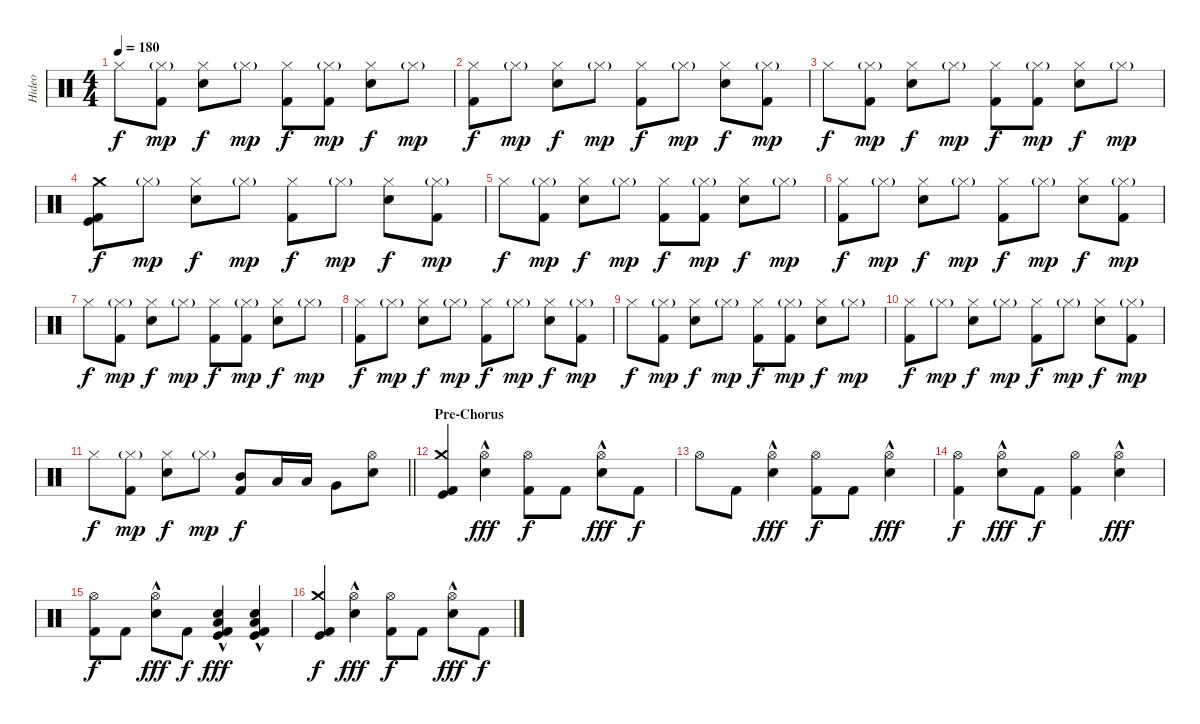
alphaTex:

\track ("Hideo" "Hideo") {instrument percussion}
\staff {score}
\articulation defaults
\ts (4 4)
\tempo 180
\clef neutral
\ks c "Hi-Hat (closed)".8{dy f}
("Hi-Hat (closed)"{g} "Kick (hit) 2").8{dy mp} ("Hi-Hat (closed)" "Electric Snare (hit)").8{dy f} "Hi-Hat (closed)"{g}.8{dy mp} ("Hi-Hat (closed)" "Kick (hit) 2").8{dy f} ("Hi-Hat (closed)"{g} "Kick (hit) 2").8{dy mp} ("Hi-Hat (closed)" "Electric Snare (hit)").8{dy f} "Hi-Hat (closed)"{g}.8{dy mp} |
("Hi-Hat (closed)" "Kick (hit) 2").8{dy f} "Hi-Hat (closed)"{g}.8{dy mp} ("Hi-Hat (closed)" "Electric Snare (hit)").8{dy f} "Hi-Hat (closed)"{g}.8{dy mp} ("Hi-Hat (closed)" "Kick (hit) 2").8{dy f} "Hi-Hat (closed)"{g}.8{dy mp} ("Hi-Hat (closed)" "Electric Snare (hit)").8{dy f} ("Hi-Hat (closed)"{g} "Kick (hit) 2").8{dy mp} |
"Hi-Hat (closed)".8{dy f} ("Hi-Hat (closed)"{g} "Kick (hit) 2").8{dy mp} ("Hi-Hat (closed)" "Electric Snare (hit)").8{dy f} "Hi-Hat (closed)"{g}.8{dy mp} ("Hi-Hat (closed)" "Kick (hit) 2").8{dy f} ("Hi-Hat (closed)"{g} "Kick (hit) 2").8{dy mp} ("Hi-Hat (closed)" "Electric Snare (hit)").8{dy f} "Hi-Hat (closed)"{g}.8{dy mp} |
("Crash medium (hit)" "Kick (hit) 2" "Kick (hit)").8{dy f} "Hi-Hat (closed)"{g}.8{dy mp} ("Hi-Hat (closed)" "Electric Snare (hit)").8{dy f} "Hi-Hat (closed)"{g}.8{dy mp} ("Hi-Hat (closed)" "Kick (hit) 2").8{dy f} "Hi-Hat (closed)"{g}.8{dy mp} ("Hi-Hat (closed)" "Electric Snare (hit)").8{dy f} ("Hi-Hat (closed)"{g} "Kick (hit) 2").8{dy mp} |
"Hi-Hat (closed)".8{dy f} ("Hi-Hat (closed)"{g} "Kick (hit) 2").8{dy mp} ("Hi-Hat (closed)" "Electric Snare (hit)").8{dy f} "Hi-Hat (closed)"{g}.8{dy mp} ("Hi-Hat (closed)" "Kick (hit) 2").8{dy f} ("Hi-Hat (closed)"{g} "Kick (hit) 2").8{dy mp} ("Hi-Hat (closed)" "Electric Snare (hit)").8{dy f} "Hi-Hat (closed)"{g}.8{dy mp} |
("Hi-Hat (closed)" "Kick (hit) 2").8{dy f} "Hi-Hat (closed)"{g}.8{dy mp} ("Hi-Hat (closed)" "Electric Snare (hit)").8{dy f} "Hi-Hat (closed)"{g}.8{dy mp} ("Hi-Hat (closed)" "Kick (hit) 2").8{dy f} "Hi-Hat (closed)"{g}.8{dy mp} ("Hi-Hat (closed)" "Electric Snare (hit)").8{dy f} ("Hi-Hat (closed)"{g} "Kick (hit) 2").8{dy mp} |
"Hi-Hat (closed)".8{dy f} ("Hi-Hat (closed)"{g} "Kick (hit) 2").8{dy mp} ("Hi-Hat (closed)" "Electric Snare (hit)").8{dy f} "Hi-Hat (closed)"{g}.8{dy mp} ("Hi-Hat (closed)" "Kick (hit) 2").8{dy f} ("Hi-Hat (closed)"{g} "Kick (hit) 2").8{dy mp} ("Hi-Hat (closed)" "Electric Snare (hit)").8{dy f} "Hi-Hat (closed)"{g}.8{dy mp} |
("Hi-Hat (closed)" "Kick (hit) 2").8{dy f} "Hi-Hat (closed)"{g}.8{dy mp} ("Hi-Hat (closed)" "Electric Snare (hit)").8{dy f} "Hi-Hat (closed)"{g}.8{dy mp} ("Hi-Hat (closed)" "Kick (hit) 2").8{dy f} "Hi-Hat (closed)"{g}.8{dy mp} ("Hi-Hat (closed)" "Electric Snare (hit)").8{dy f} ("Hi-Hat (closed)"{g} "Kick (hit) 2").8{dy mp} |
"Hi-Hat (closed)".8{dy f} ("Hi-Hat (closed)"{g} "Kick (hit) 2").8{dy mp} ("Hi-Hat (closed)" "Electric Snare (hit)").8{dy f} "Hi-Hat (closed)"{g}.8{dy mp} ("Hi-Hat (closed)" "Kick (hit) 2").8{dy f} ("Hi-Hat (closed)"{g} "Kick (hit) 2").8{dy mp} ("Hi-Hat (closed)" "Electric Snare (hit)").8{dy f} "Hi-Hat (closed)"{g}.8{dy mp} |
("Hi-Hat (closed)" "Kick (hit) 2").8{dy f} "Hi-Hat (closed)"{g}.8{dy mp} ("Hi-Hat (closed)" "Electric Snare (hit)").8{dy f} "Hi-Hat (closed)"{g}.8{dy mp} ("Hi-Hat (closed)" "Kick (hit) 2").8{dy f} "Hi-Hat (closed)"{g}.8{dy mp} ("Hi-Hat (closed)" "Electric Snare (hit)").8{dy f} ("Hi-Hat (closed)"{g} "Kick (hit) 2").8{dy mp} |
\barLineRight lightlight "Hi-Hat (closed)".8{dy f}
("Hi-Hat (closed)"{g} "Kick (hit) 2").8{dy mp} ("Hi-Hat (closed)" "Electric Snare (hit)").8{dy f} "Hi-Hat (closed)"{g}.8{dy mp} ("Mid Tom (hit)" "Kick (hit) 2").8{dy f} "Low Tom (hit)".16 "Low Tom (hit)".16 "Very Low Tom (hit)".8 ("Hi-Hat (open)" "Electric Snare (hit)").8 |
\section ("" "Pre-Chorus")
("Crash medium (hit)" "Kick (hit) 2" "Kick (hit)").4 ("Hi-Hat (open)"{hac} "Electric Snare (hit)").4{dy fff} ("Hi-Hat (open)" "Kick (hit) 2").8{dy f} "Kick (hit) 2".8 ("Hi-Hat (open)"{hac} "Electric Snare (hit)").8{dy fff} "Kick (hit) 2".8{dy f} |
"Hi-Hat (open)".8 "Kick (hit) 2".8 ("Hi-Hat (open)"{hac} "Electric Snare (hit)").4{dy fff} ("Hi-Hat (open)" "Kick (hit) 2").8{dy f} "Kick (hit) 2".8 ("Hi-Hat (open)"{hac} "Electric Snare (hit)").4{dy fff} |
("Hi-Hat (open)" "Kick (hit) 2").4{dy f} ("Hi-Hat (open)"{hac} "Electric Snare (hit)").8{dy fff} "Kick (hit) 2".8{dy f} ("Hi-Hat (open)" "Kick (hit) 2").4 ("Hi-Hat (open)"{hac} "Electric Snare (hit)").4{dy fff} |
("Hi-Hat (open)" "Kick (hit) 2").8{dy f} "Kick (hit) 2".8 ("Hi-Hat (open)"{hac} "Electric Snare (hit)").8{dy fff} "Kick (hit) 2".8{dy f} ("Low Floor Tom (hit)" "Electric Snare (hit)"{hac} "Kick (hit)" "Kick (hit) 2").4{dy fff} ("Low Floor Tom (hit)" "Electric Snare (hit)"{hac} "Kick (hit) 2" "Kick (hit)").4 |
("Crash medium (hit)" "Kick (hit) 2" "Kick (hit)").4{dy f} ("Hi-Hat (open)"{hac} "Electric Snare (hit)").4{dy fff} ("Hi-Hat (open)" "Kick (hit) 2").8{dy f} "Kick (hit) 2".8 ("Hi-Hat (open)"{hac} "Electric Snare (hit)").8{dy fff} "Kick (hit) 2".8{dy f}
